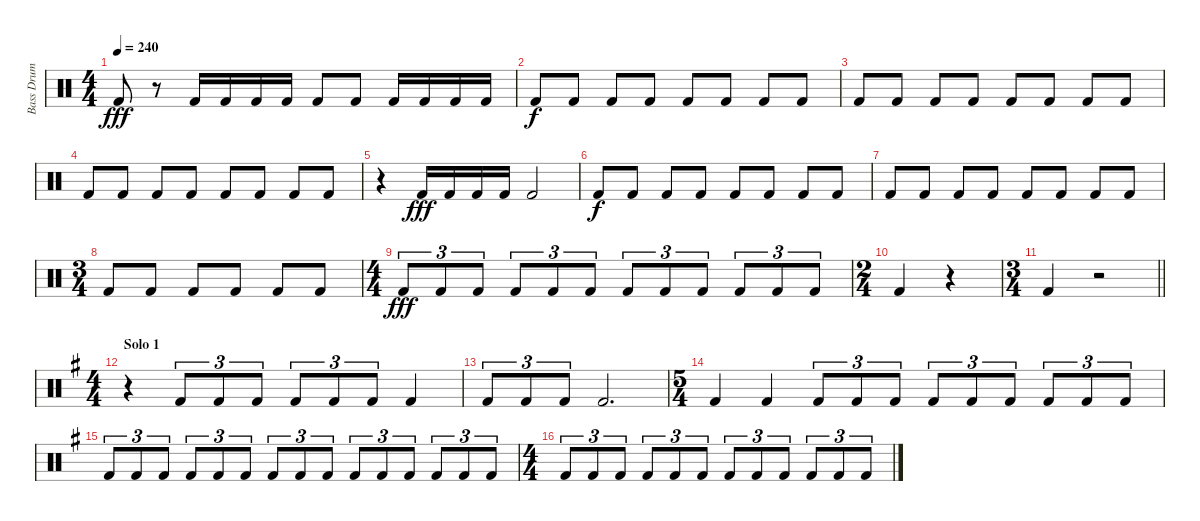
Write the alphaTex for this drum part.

\track ("Bass Drum" "Bass Drum") {instrument percussion}
\staff {score}
\articulation defaults
\ts (4 4)
\tempo 240
\clef neutral
\ks c "Kick (hit) 2".8{dy fff}
r.8 "Kick (hit) 2".16 "Kick (hit) 2".16 "Kick (hit) 2".16 "Kick (hit) 2".16 "Kick (hit) 2".8 "Kick (hit) 2".8 "Kick (hit) 2".16 "Kick (hit) 2".16 "Kick (hit) 2".16 "Kick (hit) 2".16 |
"Kick (hit) 2".8{dy f} "Kick (hit) 2".8 "Kick (hit) 2".8 "Kick (hit) 2".8 "Kick (hit) 2".8 "Kick (hit) 2".8 "Kick (hit) 2".8 "Kick (hit) 2".8 |
"Kick (hit) 2".8 "Kick (hit) 2".8 "Kick (hit) 2".8 "Kick (hit) 2".8 "Kick (hit) 2".8 "Kick (hit) 2".8 "Kick (hit) 2".8 "Kick (hit) 2".8 |
"Kick (hit) 2".8 "Kick (hit) 2".8 "Kick (hit) 2".8 "Kick (hit) 2".8 "Kick (hit) 2".8 "Kick (hit) 2".8 "Kick (hit) 2".8 "Kick (hit) 2".8 |
r.4 "Kick (hit) 2".16{dy fff} "Kick (hit) 2".16 "Kick (hit) 2".16 "Kick (hit) 2".16 "Kick (hit) 2".2 |
"Kick (hit) 2".8{dy f} "Kick (hit) 2".8 "Kick (hit) 2".8 "Kick (hit) 2".8 "Kick (hit) 2".8 "Kick (hit) 2".8 "Kick (hit) 2".8 "Kick (hit) 2".8 |
"Kick (hit) 2".8 "Kick (hit) 2".8 "Kick (hit) 2".8 "Kick (hit) 2".8 "Kick (hit) 2".8 "Kick (hit) 2".8 "Kick (hit) 2".8 "Kick (hit) 2".8 |
\ts (3 4)
"Kick (hit) 2".8 "Kick (hit) 2".8 "Kick (hit) 2".8 "Kick (hit) 2".8 "Kick (hit) 2".8 "Kick (hit) 2".8 |
\ts (4 4)
"Kick (hit) 2".8{tu (3 2) dy fff} "Kick (hit) 2".8{tu (3 2)} "Kick (hit) 2".8{tu (3 2)} "Kick (hit) 2".8{tu (3 2)} "Kick (hit) 2".8{tu (3 2)} "Kick (hit) 2".8{tu (3 2)} "Kick (hit) 2".8{tu (3 2)} "Kick (hit) 2".8{tu (3 2)} "Kick (hit) 2".8{tu (3 2)} "Kick (hit) 2".8{tu (3 2)} "Kick (hit) 2".8{tu (3 2)} "Kick (hit) 2".8{tu (3 2)} |
\ts (2 4)
"Kick (hit) 2".4 r.4 |
\ts (3 4)
\barLineRight lightlight "Kick (hit) 2".4
r.2 |
\ts (4 4)
\section ("" "Solo 1")
\ks g
r.4{volume 16} "Kick (hit) 2".8{tu (3 2)} "Kick (hit) 2".8{tu (3 2)} "Kick (hit) 2".8{tu (3 2)} "Kick (hit) 2".8{tu (3 2)} "Kick (hit) 2".8{tu (3 2)} "Kick (hit) 2".8{tu (3 2)} "Kick (hit) 2".4 |
"Kick (hit) 2".8{tu (3 2)} "Kick (hit) 2".8{tu (3 2)} "Kick (hit) 2".8{tu (3 2)} "Kick (hit) 2".2{d} |
\ts (5 4)
"Kick (hit) 2".4 "Kick (hit) 2".4 "Kick (hit) 2".8{tu (3 2)} "Kick (hit) 2".8{tu (3 2)} "Kick (hit) 2".8{tu (3 2)} "Kick (hit) 2".8{tu (3 2)} "Kick (hit) 2".8{tu (3 2)} "Kick (hit) 2".8{tu (3 2)} "Kick (hit) 2".8{tu (3 2)} "Kick (hit) 2".8{tu (3 2)} "Kick (hit) 2".8{tu (3 2)} |
"Kick (hit) 2".8{tu (3 2)} "Kick (hit) 2".8{tu (3 2)} "Kick (hit) 2".8{tu (3 2)} "Kick (hit) 2".8{tu (3 2)} "Kick (hit) 2".8{tu (3 2)} "Kick (hit) 2".8{tu (3 2)} "Kick (hit) 2".8{tu (3 2)} "Kick (hit) 2".8{tu (3 2)} "Kick (hit) 2".8{tu (3 2)} "Kick (hit) 2".8{tu (3 2)} "Kick (hit) 2".8{tu (3 2)} "Kick (hit) 2".8{tu (3 2)} "Kick (hit) 2".8{tu (3 2)} "Kick (hit) 2".8{tu (3 2)} "Kick (hit) 2".8{tu (3 2)} |
\ts (4 4)
"Kick (hit) 2".8{tu (3 2)} "Kick (hit) 2".8{tu (3 2)} "Kick (hit) 2".8{tu (3 2)} "Kick (hit) 2".8{tu (3 2)} "Kick (hit) 2".8{tu (3 2)} "Kick (hit) 2".8{tu (3 2)} "Kick (hit) 2".8{tu (3 2)} "Kick (hit) 2".8{tu (3 2)} "Kick (hit) 2".8{tu (3 2)} "Kick (hit) 2".8{tu (3 2)} "Kick (hit) 2".8{tu (3 2)} "Kick (hit) 2".8{tu (3 2)}
